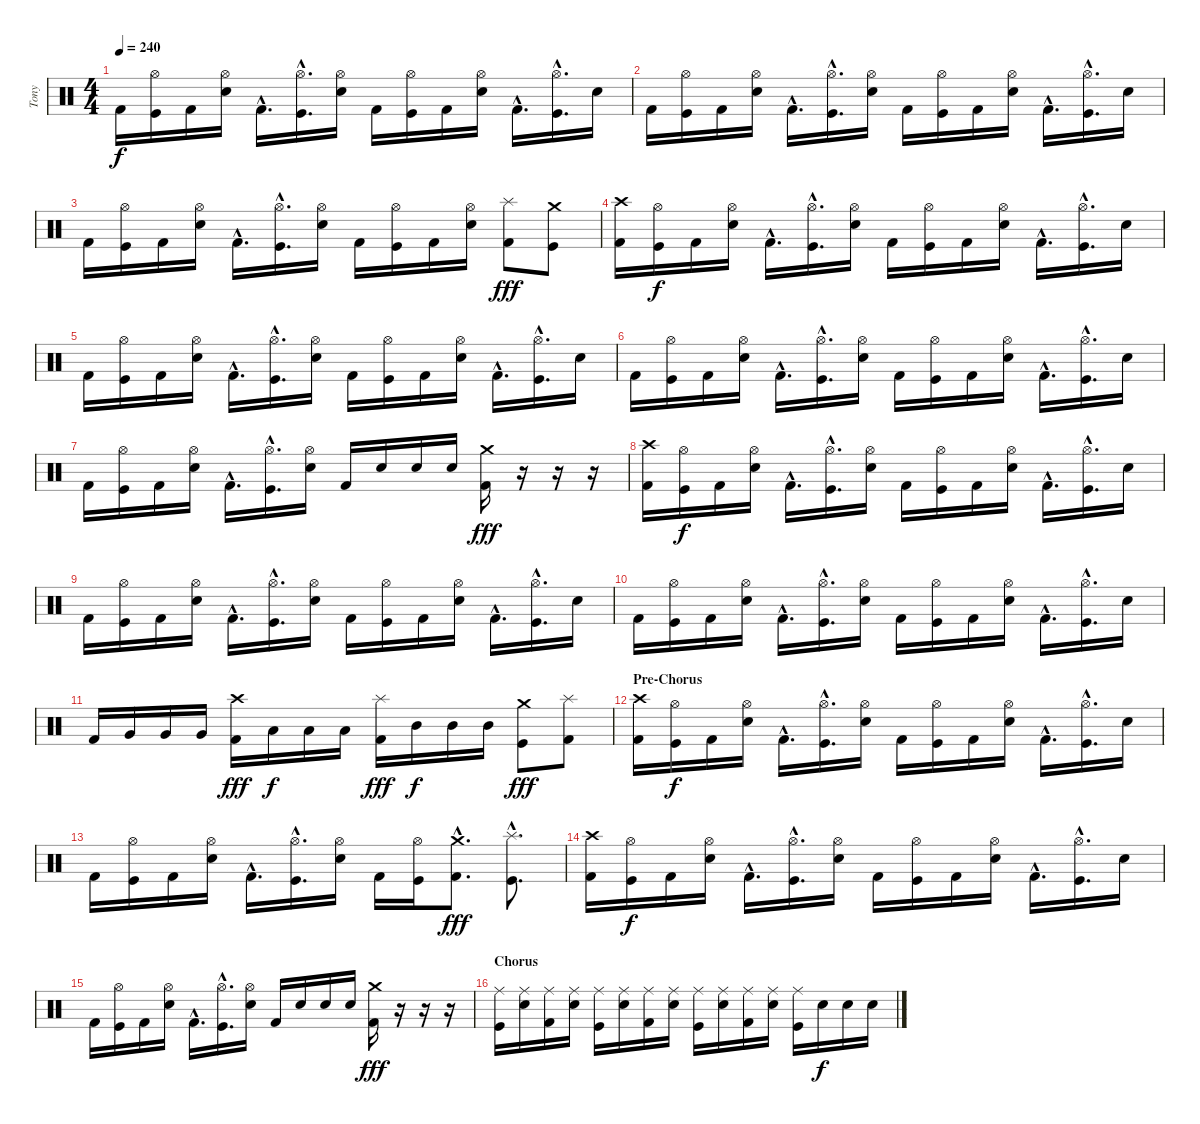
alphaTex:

\track ("Tony" "Tony") {instrument percussion}
\staff {score}
\articulation defaults
\ts (4 4)
\tempo 240
\clef neutral
\ks c "Kick (hit) 2".16{dy f}
("Kick (hit)" "Hi-Hat (open)").16 "Kick (hit) 2".16 ("Snare (hit) 2" "Hi-Hat (open)").16 "Kick (hit) 2"{hac}.16{d} ("Kick (hit)"{hac} "Hi-Hat (open)"{hac}).16{d} ("Snare (hit) 2" "Hi-Hat (open)").16 "Kick (hit) 2".16 ("Kick (hit)" "Hi-Hat (open)").16 "Kick (hit) 2".16 ("Snare (hit) 2" "Hi-Hat (open)").16 "Kick (hit) 2"{hac}.16{d} ("Kick (hit)"{hac} "Hi-Hat (open)"{hac}).16{d} "Snare (hit) 2".16 |
"Kick (hit) 2".16 ("Kick (hit)" "Hi-Hat (open)").16 "Kick (hit) 2".16 ("Snare (hit) 2" "Hi-Hat (open)").16 "Kick (hit) 2"{hac}.16{d} ("Kick (hit)"{hac} "Hi-Hat (open)"{hac}).16{d} ("Snare (hit) 2" "Hi-Hat (open)").16 "Kick (hit) 2".16 ("Kick (hit)" "Hi-Hat (open)").16 "Kick (hit) 2".16 ("Snare (hit) 2" "Hi-Hat (open)").16 "Kick (hit) 2"{hac}.16{d} ("Kick (hit)"{hac} "Hi-Hat (open)"{hac}).16{d} "Snare (hit) 2".16 |
"Kick (hit) 2".16 ("Kick (hit)" "Hi-Hat (open)").16 "Kick (hit) 2".16 ("Snare (hit) 2" "Hi-Hat (open)").16 "Kick (hit) 2"{hac}.16{d} ("Kick (hit)"{hac} "Hi-Hat (open)"{hac}).16{d} ("Snare (hit) 2" "Hi-Hat (open)").16 "Kick (hit) 2".16 ("Kick (hit)" "Hi-Hat (open)").16 "Kick (hit) 2".16 ("Snare (hit) 2" "Hi-Hat (open)").16 ("Kick (hit) 2" "Splash (hit)").8{dy fff} ("Kick (hit)" "Crash medium (hit)").8 |
("Kick (hit) 2" "Crash high (hit)").16 ("Kick (hit)" "Hi-Hat (open)").16{dy f} "Kick (hit) 2".16 ("Snare (hit) 2" "Hi-Hat (open)").16 "Kick (hit) 2"{hac}.16{d} ("Kick (hit)"{hac} "Hi-Hat (open)"{hac}).16{d} ("Snare (hit) 2" "Hi-Hat (open)").16 "Kick (hit) 2".16 ("Kick (hit)" "Hi-Hat (open)").16 "Kick (hit) 2".16 ("Snare (hit) 2" "Hi-Hat (open)").16 "Kick (hit) 2"{hac}.16{d} ("Kick (hit)"{hac} "Hi-Hat (open)"{hac}).16{d} "Snare (hit) 2".16 |
"Kick (hit) 2".16 ("Kick (hit)" "Hi-Hat (open)").16 "Kick (hit) 2".16 ("Snare (hit) 2" "Hi-Hat (open)").16 "Kick (hit) 2"{hac}.16{d} ("Kick (hit)"{hac} "Hi-Hat (open)"{hac}).16{d} ("Snare (hit) 2" "Hi-Hat (open)").16 "Kick (hit) 2".16 ("Kick (hit)" "Hi-Hat (open)").16 "Kick (hit) 2".16 ("Snare (hit) 2" "Hi-Hat (open)").16 "Kick (hit) 2"{hac}.16{d} ("Kick (hit)"{hac} "Hi-Hat (open)"{hac}).16{d} "Snare (hit) 2".16 |
"Kick (hit) 2".16 ("Kick (hit)" "Hi-Hat (open)").16 "Kick (hit) 2".16 ("Snare (hit) 2" "Hi-Hat (open)").16 "Kick (hit) 2"{hac}.16{d} ("Kick (hit)"{hac} "Hi-Hat (open)"{hac}).16{d} ("Snare (hit) 2" "Hi-Hat (open)").16 "Kick (hit) 2".16 ("Kick (hit)" "Hi-Hat (open)").16 "Kick (hit) 2".16 ("Snare (hit) 2" "Hi-Hat (open)").16 "Kick (hit) 2"{hac}.16{d} ("Kick (hit)"{hac} "Hi-Hat (open)"{hac}).16{d} "Snare (hit) 2".16 |
"Kick (hit) 2".16 ("Kick (hit)" "Hi-Hat (open)").16 "Kick (hit) 2".16 ("Snare (hit) 2" "Hi-Hat (open)").16 "Kick (hit) 2"{hac}.16{d} ("Kick (hit)"{hac} "Hi-Hat (open)"{hac}).16{d} ("Snare (hit) 2" "Hi-Hat (open)").16 "Kick (hit) 2".16 "Snare (hit) 2".16 "Snare (hit) 2".16 "Snare (hit) 2".16 ("Kick (hit) 2" "Crash medium (hit)").16{dy fff} r.16 r.16 r.16 |
("Kick (hit) 2" "Crash high (hit)").16 ("Kick (hit)" "Hi-Hat (open)").16{dy f} "Kick (hit) 2".16 ("Snare (hit) 2" "Hi-Hat (open)").16 "Kick (hit) 2"{hac}.16{d} ("Kick (hit)"{hac} "Hi-Hat (open)"{hac}).16{d} ("Snare (hit) 2" "Hi-Hat (open)").16 "Kick (hit) 2".16 ("Kick (hit)" "Hi-Hat (open)").16 "Kick (hit) 2".16 ("Snare (hit) 2" "Hi-Hat (open)").16 "Kick (hit) 2"{hac}.16{d} ("Kick (hit)"{hac} "Hi-Hat (open)"{hac}).16{d} "Snare (hit) 2".16 |
"Kick (hit) 2".16 ("Kick (hit)" "Hi-Hat (open)").16 "Kick (hit) 2".16 ("Snare (hit) 2" "Hi-Hat (open)").16 "Kick (hit) 2"{hac}.16{d} ("Kick (hit)"{hac} "Hi-Hat (open)"{hac}).16{d} ("Snare (hit) 2" "Hi-Hat (open)").16 "Kick (hit) 2".16 ("Kick (hit)" "Hi-Hat (open)").16 "Kick (hit) 2".16 ("Snare (hit) 2" "Hi-Hat (open)").16 "Kick (hit) 2"{hac}.16{d} ("Kick (hit)"{hac} "Hi-Hat (open)"{hac}).16{d} "Snare (hit) 2".16 |
"Kick (hit) 2".16 ("Kick (hit)" "Hi-Hat (open)").16 "Kick (hit) 2".16 ("Snare (hit) 2" "Hi-Hat (open)").16 "Kick (hit) 2"{hac}.16{d} ("Kick (hit)"{hac} "Hi-Hat (open)"{hac}).16{d} ("Snare (hit) 2" "Hi-Hat (open)").16 "Kick (hit) 2".16 ("Kick (hit)" "Hi-Hat (open)").16 "Kick (hit) 2".16 ("Snare (hit) 2" "Hi-Hat (open)").16 "Kick (hit) 2"{hac}.16{d} ("Kick (hit)"{hac} "Hi-Hat (open)"{hac}).16{d} "Snare (hit) 2".16 |
"Kick (hit) 2".16 "Very Low Tom (hit)".16 "Very Low Tom (hit)".16 "Very Low Tom (hit)".16 ("Kick (hit) 2" "Crash high (hit)").16{dy fff} "Low Tom (hit)".16{dy f} "Low Tom (hit)".16 "Low Tom (hit)".16 ("Kick (hit) 2" "Splash (hit)").16{dy fff} "Mid Tom (hit)".16{dy f} "Mid Tom (hit)".16 "Mid Tom (hit)".16 ("Kick (hit)" "Crash medium (hit)").8{dy fff} ("Kick (hit) 2" "Splash (hit)").8 |
\section ("" "Pre-Chorus")
("Kick (hit) 2" "Crash high (hit)").16 ("Kick (hit)" "Hi-Hat (open)").16{dy f} "Kick (hit) 2".16 ("Snare (hit) 2" "Hi-Hat (open)").16 "Kick (hit) 2"{hac}.16{d} ("Kick (hit)"{hac} "Hi-Hat (open)"{hac}).16{d} ("Snare (hit) 2" "Hi-Hat (open)").16 "Kick (hit) 2".16 ("Kick (hit)" "Hi-Hat (open)").16 "Kick (hit) 2".16 ("Snare (hit) 2" "Hi-Hat (open)").16 "Kick (hit) 2"{hac}.16{d} ("Kick (hit)"{hac} "Hi-Hat (open)"{hac}).16{d} "Snare (hit) 2".16 |
"Kick (hit) 2".16 ("Kick (hit)" "Hi-Hat (open)").16 "Kick (hit) 2".16 ("Snare (hit) 2" "Hi-Hat (open)").16 "Kick (hit) 2"{hac}.16{d} ("Kick (hit)"{hac} "Hi-Hat (open)"{hac}).16{d} ("Snare (hit) 2" "Hi-Hat (open)").16 "Kick (hit) 2".16 ("Kick (hit)" "Hi-Hat (open)").16 ("Kick (hit) 2"{hac} "Crash medium (hit)"{hac}).8{d dy fff} ("Kick (hit)"{hac} "Splash (hit)"{hac}).8{d} |
("Kick (hit) 2" "Crash high (hit)").16 ("Kick (hit)" "Hi-Hat (open)").16{dy f} "Kick (hit) 2".16 ("Snare (hit) 2" "Hi-Hat (open)").16 "Kick (hit) 2"{hac}.16{d} ("Kick (hit)"{hac} "Hi-Hat (open)"{hac}).16{d} ("Snare (hit) 2" "Hi-Hat (open)").16 "Kick (hit) 2".16 ("Kick (hit)" "Hi-Hat (open)").16 "Kick (hit) 2".16 ("Snare (hit) 2" "Hi-Hat (open)").16 "Kick (hit) 2"{hac}.16{d} ("Kick (hit)"{hac} "Hi-Hat (open)"{hac}).16{d} "Snare (hit) 2".16 |
"Kick (hit) 2".16 ("Kick (hit)" "Hi-Hat (open)").16 "Kick (hit) 2".16 ("Snare (hit) 2" "Hi-Hat (open)").16 "Kick (hit) 2"{hac}.16{d} ("Kick (hit)"{hac} "Hi-Hat (open)"{hac}).16{d} ("Snare (hit) 2" "Hi-Hat (open)").16 "Kick (hit) 2".16 "Snare (hit) 2".16 "Snare (hit) 2".16 "Snare (hit) 2".16 ("Kick (hit) 2" "Crash medium (hit)").16{dy fff} r.16 r.16 r.16 |
\section ("" "Chorus")
("Kick (hit)" "Ride (middle)").16 ("Snare (hit) 2" "Ride (middle)").16 ("Kick (hit) 2" "Ride (middle)").16 ("Snare (hit) 2" "Ride (middle)").16 ("Kick (hit)" "Ride (middle)").16 ("Snare (hit) 2" "Ride (middle)").16 ("Kick (hit) 2" "Ride (middle)").16 ("Snare (hit) 2" "Ride (middle)").16 ("Kick (hit)" "Ride (middle)").16 ("Snare (hit) 2" "Ride (middle)").16 ("Kick (hit) 2" "Ride (middle)").16 ("Snare (hit) 2" "Ride (middle)").16 ("Kick (hit)" "Ride (middle)").16 "Snare (hit) 2".16{dy f} "Snare (hit) 2".16 "Snare (hit) 2".16
